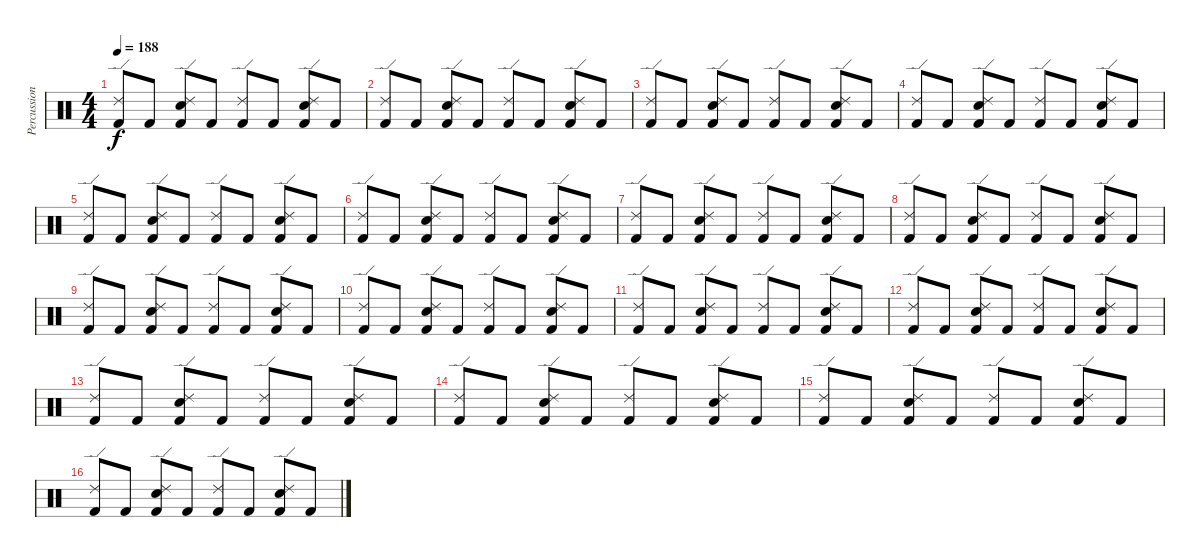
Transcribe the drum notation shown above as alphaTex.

\track ("Percussion" "Percussion") {instrument percussion}
\staff {score}
\articulation defaults
\ts (4 4)
\tempo 188
\clef neutral
\ks c
("Ride (edge) 2" "Kick (hit) 2").8{dy f} "Kick (hit) 2".8 ("Ride (edge) 2" "Snare (hit) 2" "Kick (hit) 2").8 "Kick (hit) 2".8 ("Ride (edge) 2" "Kick (hit) 2").8 "Kick (hit) 2".8 ("Ride (edge) 2" "Snare (hit) 2" "Kick (hit) 2").8 "Kick (hit) 2".8 |
("Ride (edge) 2" "Kick (hit) 2").8 "Kick (hit) 2".8 ("Ride (edge) 2" "Snare (hit) 2" "Kick (hit) 2").8 "Kick (hit) 2".8 ("Ride (edge) 2" "Kick (hit) 2").8 "Kick (hit) 2".8 ("Ride (edge) 2" "Snare (hit) 2" "Kick (hit) 2").8 "Kick (hit) 2".8 |
("Ride (edge) 2" "Kick (hit) 2").8 "Kick (hit) 2".8 ("Ride (edge) 2" "Snare (hit) 2" "Kick (hit) 2").8 "Kick (hit) 2".8 ("Ride (edge) 2" "Kick (hit) 2").8 "Kick (hit) 2".8 ("Ride (edge) 2" "Snare (hit) 2" "Kick (hit) 2").8 "Kick (hit) 2".8 |
("Ride (edge) 2" "Kick (hit) 2").8 "Kick (hit) 2".8 ("Ride (edge) 2" "Snare (hit) 2" "Kick (hit) 2").8 "Kick (hit) 2".8 ("Ride (edge) 2" "Kick (hit) 2").8 "Kick (hit) 2".8 ("Ride (edge) 2" "Snare (hit) 2" "Kick (hit) 2").8 "Kick (hit) 2".8 |
("Ride (edge) 2" "Kick (hit) 2").8 "Kick (hit) 2".8 ("Ride (edge) 2" "Snare (hit) 2" "Kick (hit) 2").8 "Kick (hit) 2".8 ("Ride (edge) 2" "Kick (hit) 2").8 "Kick (hit) 2".8 ("Ride (edge) 2" "Snare (hit) 2" "Kick (hit) 2").8 "Kick (hit) 2".8 |
("Ride (edge) 2" "Kick (hit) 2").8 "Kick (hit) 2".8 ("Ride (edge) 2" "Snare (hit) 2" "Kick (hit) 2").8 "Kick (hit) 2".8 ("Ride (edge) 2" "Kick (hit) 2").8 "Kick (hit) 2".8 ("Ride (edge) 2" "Snare (hit) 2" "Kick (hit) 2").8 "Kick (hit) 2".8 |
("Ride (edge) 2" "Kick (hit) 2").8 "Kick (hit) 2".8 ("Ride (edge) 2" "Snare (hit) 2" "Kick (hit) 2").8 "Kick (hit) 2".8 ("Ride (edge) 2" "Kick (hit) 2").8 "Kick (hit) 2".8 ("Ride (edge) 2" "Snare (hit) 2" "Kick (hit) 2").8 "Kick (hit) 2".8 |
("Ride (edge) 2" "Kick (hit) 2").8 "Kick (hit) 2".8 ("Ride (edge) 2" "Snare (hit) 2" "Kick (hit) 2").8 "Kick (hit) 2".8 ("Ride (edge) 2" "Kick (hit) 2").8 "Kick (hit) 2".8 ("Ride (edge) 2" "Snare (hit) 2" "Kick (hit) 2").8 "Kick (hit) 2".8 |
("Ride (edge) 2" "Kick (hit) 2").8 "Kick (hit) 2".8 ("Ride (edge) 2" "Snare (hit) 2" "Kick (hit) 2").8 "Kick (hit) 2".8 ("Ride (edge) 2" "Kick (hit) 2").8 "Kick (hit) 2".8 ("Ride (edge) 2" "Snare (hit) 2" "Kick (hit) 2").8 "Kick (hit) 2".8 |
("Ride (edge) 2" "Kick (hit) 2").8 "Kick (hit) 2".8 ("Ride (edge) 2" "Snare (hit) 2" "Kick (hit) 2").8 "Kick (hit) 2".8 ("Ride (edge) 2" "Kick (hit) 2").8 "Kick (hit) 2".8 ("Ride (edge) 2" "Snare (hit) 2" "Kick (hit) 2").8 "Kick (hit) 2".8 |
("Ride (edge) 2" "Kick (hit) 2").8 "Kick (hit) 2".8 ("Ride (edge) 2" "Snare (hit) 2" "Kick (hit) 2").8 "Kick (hit) 2".8 ("Ride (edge) 2" "Kick (hit) 2").8 "Kick (hit) 2".8 ("Ride (edge) 2" "Snare (hit) 2" "Kick (hit) 2").8 "Kick (hit) 2".8 |
("Ride (edge) 2" "Kick (hit) 2").8 "Kick (hit) 2".8 ("Ride (edge) 2" "Snare (hit) 2" "Kick (hit) 2").8 "Kick (hit) 2".8 ("Ride (edge) 2" "Kick (hit) 2").8 "Kick (hit) 2".8 ("Ride (edge) 2" "Snare (hit) 2" "Kick (hit) 2").8 "Kick (hit) 2".8 |
("Ride (edge) 2" "Kick (hit) 2").8 "Kick (hit) 2".8 ("Ride (edge) 2" "Snare (hit) 2" "Kick (hit) 2").8 "Kick (hit) 2".8 ("Ride (edge) 2" "Kick (hit) 2").8 "Kick (hit) 2".8 ("Ride (edge) 2" "Snare (hit) 2" "Kick (hit) 2").8 "Kick (hit) 2".8 |
("Ride (edge) 2" "Kick (hit) 2").8 "Kick (hit) 2".8 ("Ride (edge) 2" "Snare (hit) 2" "Kick (hit) 2").8 "Kick (hit) 2".8 ("Ride (edge) 2" "Kick (hit) 2").8 "Kick (hit) 2".8 ("Ride (edge) 2" "Snare (hit) 2" "Kick (hit) 2").8 "Kick (hit) 2".8 |
("Ride (edge) 2" "Kick (hit) 2").8 "Kick (hit) 2".8 ("Ride (edge) 2" "Snare (hit) 2" "Kick (hit) 2").8 "Kick (hit) 2".8 ("Ride (edge) 2" "Kick (hit) 2").8 "Kick (hit) 2".8 ("Ride (edge) 2" "Snare (hit) 2" "Kick (hit) 2").8 "Kick (hit) 2".8 |
("Ride (edge) 2" "Kick (hit) 2").8 "Kick (hit) 2".8 ("Ride (edge) 2" "Snare (hit) 2" "Kick (hit) 2").8 "Kick (hit) 2".8 ("Ride (edge) 2" "Kick (hit) 2").8 "Kick (hit) 2".8 ("Ride (edge) 2" "Snare (hit) 2" "Kick (hit) 2").8 "Kick (hit) 2".8
